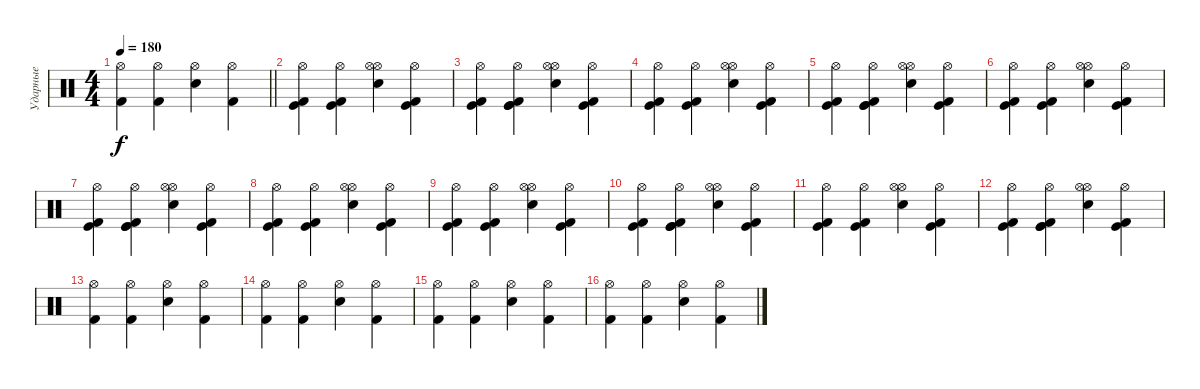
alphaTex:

\track ("Ударные" "Ударные") {instrument percussion}
\staff {score}
\articulation defaults
\ts (4 4)
\tempo 180
\clef neutral
\barLineRight lightlight
\ks c
("Hi-Hat (open)" "Kick (hit) 2").4{dy f} ("Hi-Hat (open)" "Kick (hit) 2").4 ("Electric Snare (hit)" "Hi-Hat (open)").4 ("Hi-Hat (open)" "Kick (hit) 2").4 |
("Hi-Hat (open)" "Kick (hit) 2" "Kick (hit)").4 ("Hi-Hat (open)" "Kick (hit) 2" "Kick (hit)").4 ("Electric Snare (hit)" "Hi-Hat (open)" "Hi-Hat (open)").4 ("Hi-Hat (open)" "Kick (hit) 2" "Kick (hit)").4 |
("Hi-Hat (open)" "Kick (hit) 2" "Kick (hit)").4 ("Hi-Hat (open)" "Kick (hit) 2" "Kick (hit)" "Kick (hit)").4 ("Electric Snare (hit)" "Hi-Hat (open)" "Hi-Hat (open)").4 ("Hi-Hat (open)" "Kick (hit) 2" "Kick (hit)").4 |
("Hi-Hat (open)" "Kick (hit) 2" "Kick (hit)").4 ("Hi-Hat (open)" "Kick (hit) 2" "Kick (hit)").4 ("Electric Snare (hit)" "Hi-Hat (open)" "Hi-Hat (open)").4 ("Hi-Hat (open)" "Kick (hit) 2" "Kick (hit)").4 |
("Hi-Hat (open)" "Kick (hit) 2" "Kick (hit)").4 ("Hi-Hat (open)" "Kick (hit) 2" "Kick (hit)" "Kick (hit)").4 ("Electric Snare (hit)" "Hi-Hat (open)" "Hi-Hat (open)").4 ("Hi-Hat (open)" "Kick (hit) 2" "Kick (hit)").4 |
("Hi-Hat (open)" "Kick (hit) 2" "Kick (hit)").4 ("Hi-Hat (open)" "Kick (hit) 2" "Kick (hit)").4 ("Electric Snare (hit)" "Hi-Hat (open)" "Hi-Hat (open)").4 ("Hi-Hat (open)" "Kick (hit) 2" "Kick (hit)").4 |
("Hi-Hat (open)" "Kick (hit) 2" "Kick (hit)").4 ("Hi-Hat (open)" "Kick (hit) 2" "Kick (hit)" "Kick (hit)").4 ("Electric Snare (hit)" "Hi-Hat (open)" "Hi-Hat (open)").4 ("Hi-Hat (open)" "Kick (hit) 2" "Kick (hit)").4 |
("Hi-Hat (open)" "Kick (hit) 2" "Kick (hit)").4 ("Hi-Hat (open)" "Kick (hit) 2" "Kick (hit)").4 ("Electric Snare (hit)" "Hi-Hat (open)" "Hi-Hat (open)").4 ("Hi-Hat (open)" "Kick (hit) 2" "Kick (hit)").4 |
("Hi-Hat (open)" "Kick (hit) 2" "Kick (hit)").4 ("Hi-Hat (open)" "Kick (hit) 2" "Kick (hit)").4 ("Electric Snare (hit)" "Hi-Hat (open)" "Hi-Hat (open)").4 ("Hi-Hat (open)" "Kick (hit) 2" "Kick (hit)").4 |
("Hi-Hat (open)" "Kick (hit) 2" "Kick (hit)").4 ("Hi-Hat (open)" "Kick (hit) 2" "Kick (hit)" "Kick (hit)").4 ("Electric Snare (hit)" "Hi-Hat (open)" "Hi-Hat (open)").4 ("Hi-Hat (open)" "Kick (hit) 2" "Kick (hit)").4 |
("Hi-Hat (open)" "Kick (hit) 2" "Kick (hit)").4 ("Hi-Hat (open)" "Kick (hit) 2" "Kick (hit)").4 ("Electric Snare (hit)" "Hi-Hat (open)" "Hi-Hat (open)").4 ("Hi-Hat (open)" "Kick (hit) 2" "Kick (hit)").4 |
("Hi-Hat (open)" "Kick (hit) 2" "Kick (hit)").4 ("Hi-Hat (open)" "Kick (hit) 2" "Kick (hit)" "Kick (hit)").4 ("Electric Snare (hit)" "Hi-Hat (open)" "Hi-Hat (open)").4 ("Hi-Hat (open)" "Kick (hit) 2" "Kick (hit)").4 |
("Hi-Hat (open)" "Kick (hit) 2").4 ("Hi-Hat (open)" "Kick (hit) 2").4 ("Electric Snare (hit)" "Hi-Hat (open)").4 ("Hi-Hat (open)" "Kick (hit) 2").4 |
("Hi-Hat (open)" "Kick (hit) 2").4 ("Hi-Hat (open)" "Kick (hit) 2").4 ("Electric Snare (hit)" "Hi-Hat (open)").4 ("Hi-Hat (open)" "Kick (hit) 2").4 |
("Hi-Hat (open)" "Kick (hit) 2").4 ("Hi-Hat (open)" "Kick (hit) 2").4 ("Electric Snare (hit)" "Hi-Hat (open)").4 ("Hi-Hat (open)" "Kick (hit) 2").4 |
("Hi-Hat (open)" "Kick (hit) 2").4 ("Hi-Hat (open)" "Kick (hit) 2").4 ("Electric Snare (hit)" "Hi-Hat (open)").4 ("Hi-Hat (open)" "Kick (hit) 2").4
